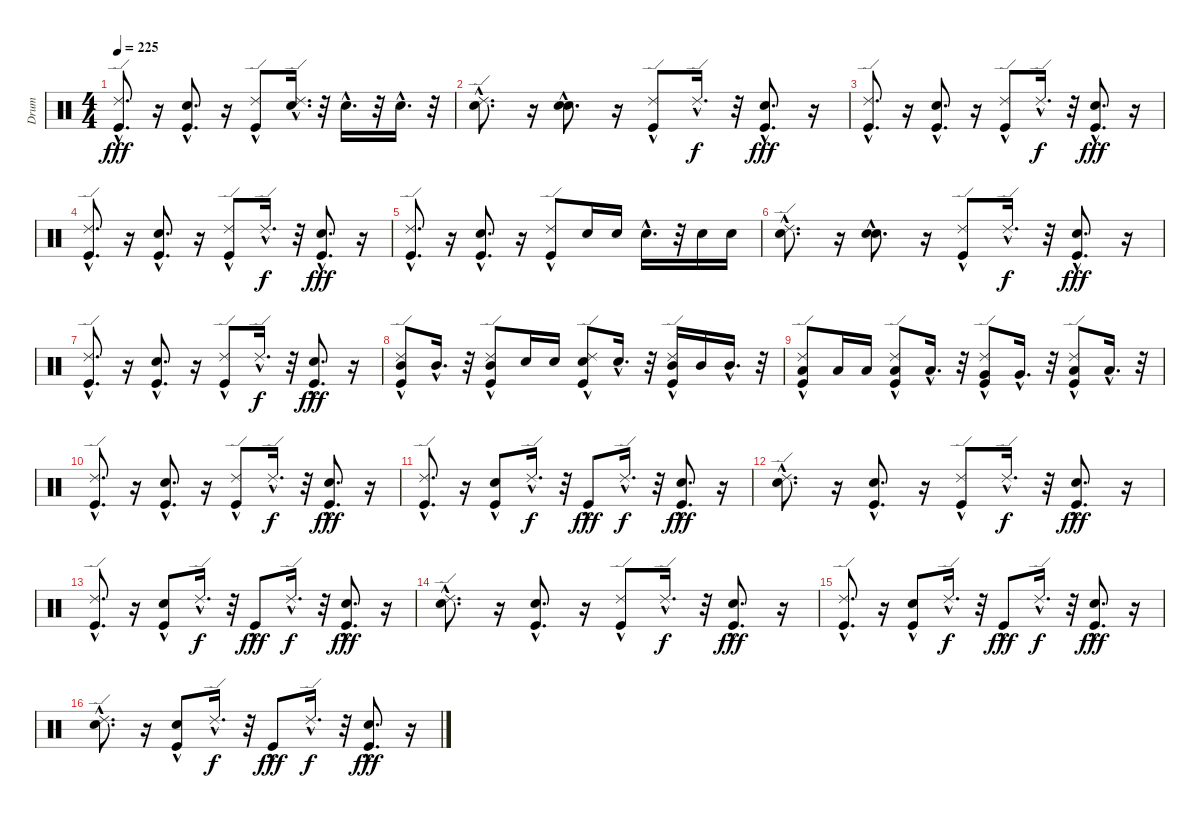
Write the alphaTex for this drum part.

\track ("Drum" "Drum") {instrument percussion}
\staff {score}
\articulation defaults
\ts (4 4)
\tempo 225
\clef neutral
\ks c
("Kick (hit)"{hac} "Ride (edge) 2"{hac}).8{d dy fff} r.16 ("Kick (hit)"{hac} "Electric Snare (hit)"{hac}).8{d} r.16 ("Kick (hit)"{hac} "Ride (edge) 2"{hac}).8 ("Electric Snare (hit)"{hac} "Ride (edge) 2"{hac}).16{d} r.32 "Electric Snare (hit)"{hac}.16{d} r.32 "Electric Snare (hit)"{hac}.16{d} r.32 |
("Snare (hit) 2"{hac} "Ride (edge) 2"{hac}).8{d} r.16 ("Snare (hit) 2"{hac} "Electric Snare (hit)"{hac}).8{d} r.16 ("Kick (hit)"{hac} "Ride (edge) 2"{hac}).8 "Ride (edge) 2"{hac}.16{d dy f} r.32 ("Kick (hit)"{hac} "Electric Snare (hit)"{hac}).8{d dy fff} r.16 |
("Kick (hit)"{hac} "Ride (edge) 2"{hac}).8{d} r.16 ("Kick (hit)"{hac} "Electric Snare (hit)"{hac}).8{d} r.16 ("Kick (hit)"{hac} "Ride (edge) 2"{hac}).8 "Ride (edge) 2"{hac}.16{d dy f} r.32 ("Kick (hit)"{hac} "Electric Snare (hit)"{hac}).8{d dy fff} r.16 |
("Kick (hit)"{hac} "Ride (edge) 2"{hac}).8{d} r.16 ("Kick (hit)"{hac} "Electric Snare (hit)"{hac}).8{d} r.16 ("Kick (hit)"{hac} "Ride (edge) 2"{hac}).8 "Ride (edge) 2"{hac}.16{d dy f} r.32 ("Kick (hit)"{hac} "Electric Snare (hit)"{hac}).8{d dy fff} r.16 |
("Kick (hit)"{hac} "Ride (edge) 2"{hac}).8{d} r.16 ("Kick (hit)"{hac} "Electric Snare (hit)"{hac}).8{d} r.16 ("Kick (hit)"{hac} "Ride (edge) 2"{hac}).8 "Electric Snare (hit)".16 "Electric Snare (hit)".16 "Electric Snare (hit)"{hac}.16{d} r.32 "Electric Snare (hit)".16 "Electric Snare (hit)".16 |
("Snare (hit) 2"{hac} "Ride (edge) 2"{hac}).8{d} r.16 ("Snare (hit) 2"{hac} "Electric Snare (hit)"{hac}).8{d} r.16 ("Kick (hit)"{hac} "Ride (edge) 2"{hac}).8 "Ride (edge) 2"{hac}.16{d dy f} r.32 ("Kick (hit)"{hac} "Electric Snare (hit)"{hac}).8{d dy fff} r.16 |
("Kick (hit)"{hac} "Ride (edge) 2"{hac}).8{d} r.16 ("Kick (hit)"{hac} "Electric Snare (hit)"{hac}).8{d} r.16 ("Kick (hit)"{hac} "Ride (edge) 2"{hac}).8 "Ride (edge) 2"{hac}.16{d dy f} r.32 ("Kick (hit)"{hac} "Electric Snare (hit)"{hac}).8{d dy fff} r.16 |
("Kick (hit)"{hac} "Mid Tom (hit)"{hac} "Ride (edge) 2"{hac}).8 "Mid Tom (hit)"{hac}.16{d} r.32 ("Kick (hit)"{hac} "Mid Tom (hit)"{hac} "Ride (edge) 2"{hac}).8 "Electric Snare (hit)".16 "Electric Snare (hit)".16 ("Kick (hit)"{hac} "Electric Snare (hit)"{hac} "Ride (edge) 2"{hac}).8 "Electric Snare (hit)"{hac}.16{d} r.32 ("Kick (hit)"{hac} "Mid Tom (hit)" "Ride (edge) 2"{hac}).16 "Mid Tom (hit)".16 "Mid Tom (hit)"{hac}.16{d} r.32 |
("Kick (hit)"{hac} "Low Tom (hit)"{hac} "Ride (edge) 2"{hac}).8 "Low Tom (hit)".16 "Low Tom (hit)".16 ("Kick (hit)"{hac} "Low Tom (hit)"{hac} "Ride (edge) 2"{hac}).8 "Low Tom (hit)"{hac}.16{d} r.32 ("Kick (hit)"{hac} "Very Low Tom (hit)"{hac} "Ride (edge) 2"{hac}).8 "Very Low Tom (hit)"{hac}.16{d} r.32 ("Kick (hit)"{hac} "Low Floor Tom (hit)"{hac} "Ride (edge) 2"{hac}).8 "Low Floor Tom (hit)"{hac}.16{d} r.32 |
("Kick (hit)"{hac} "Ride (edge) 2"{hac}).8{d} r.16 ("Kick (hit)"{hac} "Electric Snare (hit)"{hac}).8{d} r.16 ("Kick (hit)"{hac} "Ride (edge) 2"{hac}).8 "Ride (edge) 2"{hac}.16{d dy f} r.32 ("Kick (hit)"{hac} "Electric Snare (hit)"{hac}).8{d dy fff} r.16 |
("Kick (hit)"{hac} "Ride (edge) 2"{hac}).8{d} r.16 ("Kick (hit)"{hac} "Electric Snare (hit)"{hac}).8 "Ride (edge) 2"{hac}.16{d dy f} r.32 "Kick (hit)"{hac}.8{dy fff} "Ride (edge) 2"{hac}.16{d dy f} r.32 ("Kick (hit)"{hac} "Electric Snare (hit)"{hac}).8{d dy fff} r.16 |
("Snare (hit) 2"{hac} "Ride (edge) 2"{hac}).8{d} r.16 ("Kick (hit)"{hac} "Electric Snare (hit)"{hac}).8{d} r.16 ("Kick (hit)"{hac} "Ride (edge) 2"{hac}).8 "Ride (edge) 2"{hac}.16{d dy f} r.32 ("Kick (hit)"{hac} "Electric Snare (hit)"{hac}).8{d dy fff} r.16 |
("Kick (hit)"{hac} "Ride (edge) 2"{hac}).8{d} r.16 ("Kick (hit)"{hac} "Electric Snare (hit)"{hac}).8 "Ride (edge) 2"{hac}.16{d dy f} r.32 "Kick (hit)"{hac}.8{dy fff} "Ride (edge) 2"{hac}.16{d dy f} r.32 ("Kick (hit)"{hac} "Electric Snare (hit)"{hac}).8{d dy fff} r.16 |
("Snare (hit) 2"{hac} "Ride (edge) 2"{hac}).8{d} r.16 ("Kick (hit)"{hac} "Electric Snare (hit)"{hac}).8{d} r.16 ("Kick (hit)"{hac} "Ride (edge) 2"{hac}).8 "Ride (edge) 2"{hac}.16{d dy f} r.32 ("Kick (hit)"{hac} "Electric Snare (hit)"{hac}).8{d dy fff} r.16 |
("Kick (hit)"{hac} "Ride (edge) 2"{hac}).8{d} r.16 ("Kick (hit)"{hac} "Electric Snare (hit)"{hac}).8 "Ride (edge) 2"{hac}.16{d dy f} r.32 "Kick (hit)"{hac}.8{dy fff} "Ride (edge) 2"{hac}.16{d dy f} r.32 ("Kick (hit)"{hac} "Electric Snare (hit)"{hac}).8{d dy fff} r.16 |
("Snare (hit) 2"{hac} "Ride (edge) 2"{hac}).8{d} r.16 ("Kick (hit)"{hac} "Electric Snare (hit)"{hac}).8 "Ride (edge) 2"{hac}.16{d dy f} r.32 "Kick (hit)"{hac}.8{dy fff} "Ride (edge) 2"{hac}.16{d dy f} r.32 ("Kick (hit)"{hac} "Electric Snare (hit)"{hac}).8{d dy fff} r.16
